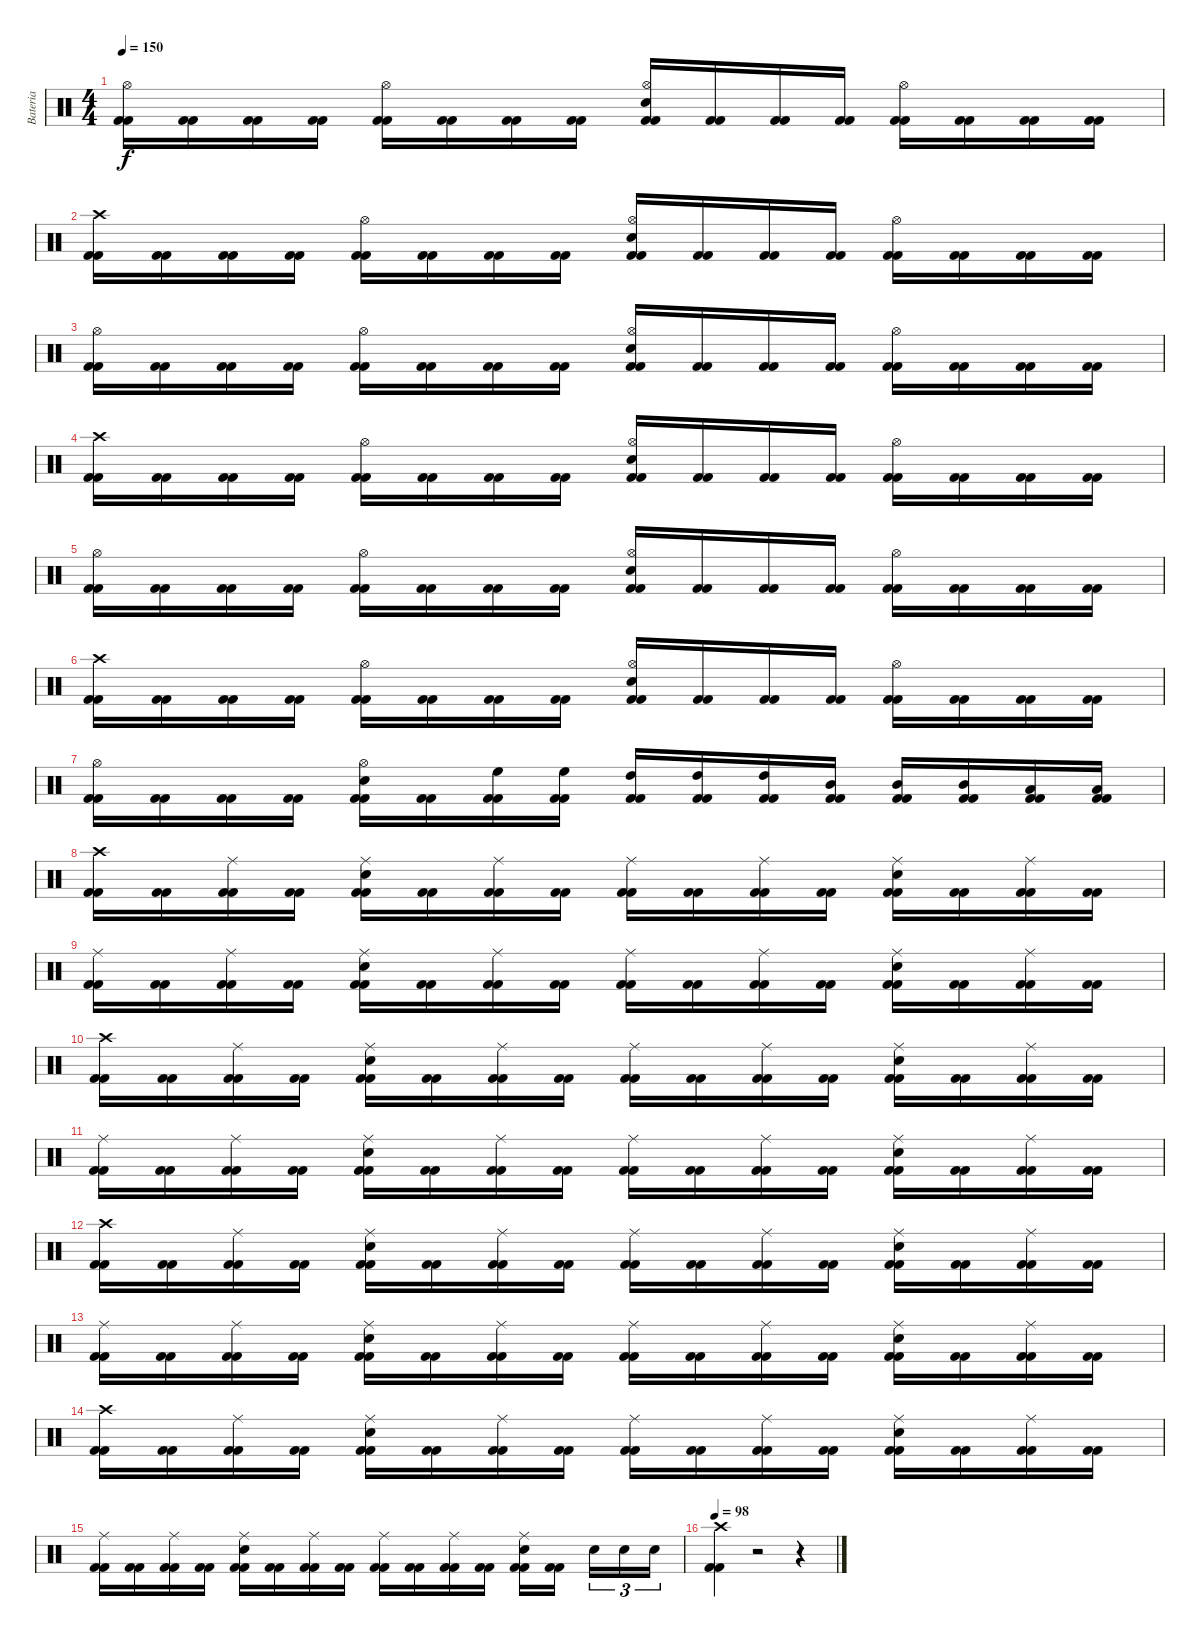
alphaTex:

\track ("Bateria" "Bateria") {instrument percussion}
\staff {score}
\articulation defaults
\ts (4 4)
\tempo 150
\clef neutral
\ks c
("Kick (hit) 2" "Kick (hit) 2" "Hi-Hat (open)").16{dy f} ("Kick (hit) 2" "Kick (hit) 2").16 ("Kick (hit) 2" "Kick (hit) 2").16 ("Kick (hit) 2" "Kick (hit) 2").16 ("Kick (hit) 2" "Kick (hit) 2" "Hi-Hat (open)").16 ("Kick (hit) 2" "Kick (hit) 2").16 ("Kick (hit) 2" "Kick (hit) 2").16 ("Kick (hit) 2" "Kick (hit) 2").16 ("Kick (hit) 2" "Kick (hit) 2" "Snare (hit) 2" "Hi-Hat (open)").16 ("Kick (hit) 2" "Kick (hit) 2").16 ("Kick (hit) 2" "Kick (hit) 2").16 ("Kick (hit) 2" "Kick (hit) 2").16 ("Kick (hit) 2" "Kick (hit) 2" "Hi-Hat (open)").16 ("Kick (hit) 2" "Kick (hit) 2").16 ("Kick (hit) 2" "Kick (hit) 2").16 ("Kick (hit) 2" "Kick (hit) 2").16 |
("Kick (hit) 2" "Kick (hit) 2" "Crash high (hit)").16 ("Kick (hit) 2" "Kick (hit) 2").16 ("Kick (hit) 2" "Kick (hit) 2").16 ("Kick (hit) 2" "Kick (hit) 2").16 ("Kick (hit) 2" "Kick (hit) 2" "Hi-Hat (open)").16 ("Kick (hit) 2" "Kick (hit) 2").16 ("Kick (hit) 2" "Kick (hit) 2").16 ("Kick (hit) 2" "Kick (hit) 2").16 ("Kick (hit) 2" "Kick (hit) 2" "Snare (hit) 2" "Hi-Hat (open)").16 ("Kick (hit) 2" "Kick (hit) 2").16 ("Kick (hit) 2" "Kick (hit) 2").16 ("Kick (hit) 2" "Kick (hit) 2").16 ("Kick (hit) 2" "Kick (hit) 2" "Hi-Hat (open)").16 ("Kick (hit) 2" "Kick (hit) 2").16 ("Kick (hit) 2" "Kick (hit) 2").16 ("Kick (hit) 2" "Kick (hit) 2").16 |
("Kick (hit) 2" "Kick (hit) 2" "Hi-Hat (open)").16 ("Kick (hit) 2" "Kick (hit) 2").16 ("Kick (hit) 2" "Kick (hit) 2").16 ("Kick (hit) 2" "Kick (hit) 2").16 ("Kick (hit) 2" "Kick (hit) 2" "Hi-Hat (open)").16 ("Kick (hit) 2" "Kick (hit) 2").16 ("Kick (hit) 2" "Kick (hit) 2").16 ("Kick (hit) 2" "Kick (hit) 2").16 ("Kick (hit) 2" "Kick (hit) 2" "Snare (hit) 2" "Hi-Hat (open)").16 ("Kick (hit) 2" "Kick (hit) 2").16 ("Kick (hit) 2" "Kick (hit) 2").16 ("Kick (hit) 2" "Kick (hit) 2").16 ("Kick (hit) 2" "Kick (hit) 2" "Hi-Hat (open)").16 ("Kick (hit) 2" "Kick (hit) 2").16 ("Kick (hit) 2" "Kick (hit) 2").16 ("Kick (hit) 2" "Kick (hit) 2").16 |
("Kick (hit) 2" "Kick (hit) 2" "Crash high (hit)").16 ("Kick (hit) 2" "Kick (hit) 2").16 ("Kick (hit) 2" "Kick (hit) 2").16 ("Kick (hit) 2" "Kick (hit) 2").16 ("Kick (hit) 2" "Kick (hit) 2" "Hi-Hat (open)").16 ("Kick (hit) 2" "Kick (hit) 2").16 ("Kick (hit) 2" "Kick (hit) 2").16 ("Kick (hit) 2" "Kick (hit) 2").16 ("Kick (hit) 2" "Kick (hit) 2" "Snare (hit) 2" "Hi-Hat (open)").16 ("Kick (hit) 2" "Kick (hit) 2").16 ("Kick (hit) 2" "Kick (hit) 2").16 ("Kick (hit) 2" "Kick (hit) 2").16 ("Kick (hit) 2" "Kick (hit) 2" "Hi-Hat (open)").16 ("Kick (hit) 2" "Kick (hit) 2").16 ("Kick (hit) 2" "Kick (hit) 2").16 ("Kick (hit) 2" "Kick (hit) 2").16 |
("Kick (hit) 2" "Kick (hit) 2" "Hi-Hat (open)").16 ("Kick (hit) 2" "Kick (hit) 2").16 ("Kick (hit) 2" "Kick (hit) 2").16 ("Kick (hit) 2" "Kick (hit) 2").16 ("Kick (hit) 2" "Kick (hit) 2" "Hi-Hat (open)").16 ("Kick (hit) 2" "Kick (hit) 2").16 ("Kick (hit) 2" "Kick (hit) 2").16 ("Kick (hit) 2" "Kick (hit) 2").16 ("Kick (hit) 2" "Kick (hit) 2" "Snare (hit) 2" "Hi-Hat (open)").16 ("Kick (hit) 2" "Kick (hit) 2").16 ("Kick (hit) 2" "Kick (hit) 2").16 ("Kick (hit) 2" "Kick (hit) 2").16 ("Kick (hit) 2" "Kick (hit) 2" "Hi-Hat (open)").16 ("Kick (hit) 2" "Kick (hit) 2").16 ("Kick (hit) 2" "Kick (hit) 2").16 ("Kick (hit) 2" "Kick (hit) 2").16 |
("Kick (hit) 2" "Kick (hit) 2" "Crash high (hit)").16 ("Kick (hit) 2" "Kick (hit) 2").16 ("Kick (hit) 2" "Kick (hit) 2").16 ("Kick (hit) 2" "Kick (hit) 2").16 ("Kick (hit) 2" "Kick (hit) 2" "Hi-Hat (open)").16 ("Kick (hit) 2" "Kick (hit) 2").16 ("Kick (hit) 2" "Kick (hit) 2").16 ("Kick (hit) 2" "Kick (hit) 2").16 ("Kick (hit) 2" "Kick (hit) 2" "Snare (hit) 2" "Hi-Hat (open)").16 ("Kick (hit) 2" "Kick (hit) 2").16 ("Kick (hit) 2" "Kick (hit) 2").16 ("Kick (hit) 2" "Kick (hit) 2").16 ("Kick (hit) 2" "Kick (hit) 2" "Hi-Hat (open)").16 ("Kick (hit) 2" "Kick (hit) 2").16 ("Kick (hit) 2" "Kick (hit) 2").16 ("Kick (hit) 2" "Kick (hit) 2").16 |
("Kick (hit) 2" "Kick (hit) 2" "Hi-Hat (open)").16 ("Kick (hit) 2" "Kick (hit) 2").16 ("Kick (hit) 2" "Kick (hit) 2").16 ("Kick (hit) 2" "Kick (hit) 2").16 ("Kick (hit) 2" "Kick (hit) 2" "Snare (hit) 2" "Hi-Hat (open)").16 ("Kick (hit) 2" "Kick (hit) 2").16 ("Kick (hit) 2" "Kick (hit) 2" "High Floor Tom (hit)").16 ("Kick (hit) 2" "Kick (hit) 2" "High Floor Tom (hit)").16 ("Kick (hit) 2" "Kick (hit) 2" "High Tom (hit)").16 ("Kick (hit) 2" "Kick (hit) 2" "High Tom (hit)").16 ("Kick (hit) 2" "Kick (hit) 2" "High Tom (hit)").16 ("Kick (hit) 2" "Kick (hit) 2" "Mid Tom (hit)").16 ("Kick (hit) 2" "Kick (hit) 2" "Mid Tom (hit)").16 ("Kick (hit) 2" "Kick (hit) 2" "Mid Tom (hit)").16 ("Kick (hit) 2" "Kick (hit) 2" "Low Tom (hit)").16 ("Kick (hit) 2" "Kick (hit) 2" "Low Tom (hit)").16 |
("Kick (hit) 2" "Kick (hit) 2" "Crash high (hit)").16 ("Kick (hit) 2" "Kick (hit) 2").16 ("Kick (hit) 2" "Kick (hit) 2" "Ride (middle)").16 ("Kick (hit) 2" "Kick (hit) 2").16 ("Kick (hit) 2" "Kick (hit) 2" "Snare (hit) 2" "Ride (middle)").16 ("Kick (hit) 2" "Kick (hit) 2").16 ("Kick (hit) 2" "Kick (hit) 2" "Ride (middle)").16 ("Kick (hit) 2" "Kick (hit) 2").16 ("Kick (hit) 2" "Kick (hit) 2" "Ride (middle)").16 ("Kick (hit) 2" "Kick (hit) 2").16 ("Kick (hit) 2" "Kick (hit) 2" "Ride (middle)").16 ("Kick (hit) 2" "Kick (hit) 2").16 ("Kick (hit) 2" "Kick (hit) 2" "Snare (hit) 2" "Ride (middle)").16 ("Kick (hit) 2" "Kick (hit) 2").16 ("Kick (hit) 2" "Kick (hit) 2" "Ride (middle)").16 ("Kick (hit) 2" "Kick (hit) 2").16 |
("Kick (hit) 2" "Kick (hit) 2" "Ride (middle)").16 ("Kick (hit) 2" "Kick (hit) 2").16 ("Kick (hit) 2" "Kick (hit) 2" "Ride (middle)").16 ("Kick (hit) 2" "Kick (hit) 2").16 ("Kick (hit) 2" "Kick (hit) 2" "Snare (hit) 2" "Ride (middle)").16 ("Kick (hit) 2" "Kick (hit) 2").16 ("Kick (hit) 2" "Kick (hit) 2" "Ride (middle)").16 ("Kick (hit) 2" "Kick (hit) 2").16 ("Kick (hit) 2" "Kick (hit) 2" "Ride (middle)").16 ("Kick (hit) 2" "Kick (hit) 2").16 ("Kick (hit) 2" "Kick (hit) 2" "Ride (middle)").16 ("Kick (hit) 2" "Kick (hit) 2").16 ("Kick (hit) 2" "Kick (hit) 2" "Snare (hit) 2" "Ride (middle)").16 ("Kick (hit) 2" "Kick (hit) 2").16 ("Kick (hit) 2" "Kick (hit) 2" "Ride (middle)").16 ("Kick (hit) 2" "Kick (hit) 2").16 |
("Kick (hit) 2" "Kick (hit) 2" "Crash high (hit)").16 ("Kick (hit) 2" "Kick (hit) 2").16 ("Kick (hit) 2" "Kick (hit) 2" "Ride (middle)").16 ("Kick (hit) 2" "Kick (hit) 2").16 ("Kick (hit) 2" "Kick (hit) 2" "Snare (hit) 2" "Ride (middle)").16 ("Kick (hit) 2" "Kick (hit) 2").16 ("Kick (hit) 2" "Kick (hit) 2" "Ride (middle)").16 ("Kick (hit) 2" "Kick (hit) 2").16 ("Kick (hit) 2" "Kick (hit) 2" "Ride (middle)").16 ("Kick (hit) 2" "Kick (hit) 2").16 ("Kick (hit) 2" "Kick (hit) 2" "Ride (middle)").16 ("Kick (hit) 2" "Kick (hit) 2").16 ("Kick (hit) 2" "Kick (hit) 2" "Snare (hit) 2" "Ride (middle)").16 ("Kick (hit) 2" "Kick (hit) 2").16 ("Kick (hit) 2" "Kick (hit) 2" "Ride (middle)").16 ("Kick (hit) 2" "Kick (hit) 2").16 |
("Kick (hit) 2" "Kick (hit) 2" "Ride (middle)").16 ("Kick (hit) 2" "Kick (hit) 2").16 ("Kick (hit) 2" "Kick (hit) 2" "Ride (middle)").16 ("Kick (hit) 2" "Kick (hit) 2").16 ("Kick (hit) 2" "Kick (hit) 2" "Snare (hit) 2" "Ride (middle)").16 ("Kick (hit) 2" "Kick (hit) 2").16 ("Kick (hit) 2" "Kick (hit) 2" "Ride (middle)").16 ("Kick (hit) 2" "Kick (hit) 2").16 ("Kick (hit) 2" "Kick (hit) 2" "Ride (middle)").16 ("Kick (hit) 2" "Kick (hit) 2").16 ("Kick (hit) 2" "Kick (hit) 2" "Ride (middle)").16 ("Kick (hit) 2" "Kick (hit) 2").16 ("Kick (hit) 2" "Kick (hit) 2" "Snare (hit) 2" "Ride (middle)").16 ("Kick (hit) 2" "Kick (hit) 2").16 ("Kick (hit) 2" "Kick (hit) 2" "Ride (middle)").16 ("Kick (hit) 2" "Kick (hit) 2").16 |
("Kick (hit) 2" "Kick (hit) 2" "Crash high (hit)").16 ("Kick (hit) 2" "Kick (hit) 2").16 ("Kick (hit) 2" "Kick (hit) 2" "Ride (middle)").16 ("Kick (hit) 2" "Kick (hit) 2").16 ("Kick (hit) 2" "Kick (hit) 2" "Snare (hit) 2" "Ride (middle)").16 ("Kick (hit) 2" "Kick (hit) 2").16 ("Kick (hit) 2" "Kick (hit) 2" "Ride (middle)").16 ("Kick (hit) 2" "Kick (hit) 2").16 ("Kick (hit) 2" "Kick (hit) 2" "Ride (middle)").16 ("Kick (hit) 2" "Kick (hit) 2").16 ("Kick (hit) 2" "Kick (hit) 2" "Ride (middle)").16 ("Kick (hit) 2" "Kick (hit) 2").16 ("Kick (hit) 2" "Kick (hit) 2" "Snare (hit) 2" "Ride (middle)").16 ("Kick (hit) 2" "Kick (hit) 2").16 ("Kick (hit) 2" "Kick (hit) 2" "Ride (middle)").16 ("Kick (hit) 2" "Kick (hit) 2").16 |
("Kick (hit) 2" "Kick (hit) 2" "Ride (middle)").16 ("Kick (hit) 2" "Kick (hit) 2").16 ("Kick (hit) 2" "Kick (hit) 2" "Ride (middle)").16 ("Kick (hit) 2" "Kick (hit) 2").16 ("Kick (hit) 2" "Kick (hit) 2" "Snare (hit) 2" "Ride (middle)").16 ("Kick (hit) 2" "Kick (hit) 2").16 ("Kick (hit) 2" "Kick (hit) 2" "Ride (middle)").16 ("Kick (hit) 2" "Kick (hit) 2").16 ("Kick (hit) 2" "Kick (hit) 2" "Ride (middle)").16 ("Kick (hit) 2" "Kick (hit) 2").16 ("Kick (hit) 2" "Kick (hit) 2" "Ride (middle)").16 ("Kick (hit) 2" "Kick (hit) 2").16 ("Kick (hit) 2" "Kick (hit) 2" "Snare (hit) 2" "Ride (middle)").16 ("Kick (hit) 2" "Kick (hit) 2").16 ("Kick (hit) 2" "Kick (hit) 2" "Ride (middle)").16 ("Kick (hit) 2" "Kick (hit) 2").16 |
("Kick (hit) 2" "Kick (hit) 2" "Crash high (hit)").16 ("Kick (hit) 2" "Kick (hit) 2").16 ("Kick (hit) 2" "Kick (hit) 2" "Ride (middle)").16 ("Kick (hit) 2" "Kick (hit) 2").16 ("Kick (hit) 2" "Kick (hit) 2" "Snare (hit) 2" "Ride (middle)").16 ("Kick (hit) 2" "Kick (hit) 2").16 ("Kick (hit) 2" "Kick (hit) 2" "Ride (middle)").16 ("Kick (hit) 2" "Kick (hit) 2").16 ("Kick (hit) 2" "Kick (hit) 2" "Ride (middle)").16 ("Kick (hit) 2" "Kick (hit) 2").16 ("Kick (hit) 2" "Kick (hit) 2" "Ride (middle)").16 ("Kick (hit) 2" "Kick (hit) 2").16 ("Kick (hit) 2" "Kick (hit) 2" "Snare (hit) 2" "Ride (middle)").16 ("Kick (hit) 2" "Kick (hit) 2").16 ("Kick (hit) 2" "Kick (hit) 2" "Ride (middle)").16 ("Kick (hit) 2" "Kick (hit) 2").16 |
("Kick (hit) 2" "Kick (hit) 2" "Ride (middle)").16 ("Kick (hit) 2" "Kick (hit) 2").16 ("Kick (hit) 2" "Kick (hit) 2" "Ride (middle)").16 ("Kick (hit) 2" "Kick (hit) 2").16 ("Kick (hit) 2" "Kick (hit) 2" "Snare (hit) 2" "Ride (middle)").16 ("Kick (hit) 2" "Kick (hit) 2").16 ("Kick (hit) 2" "Kick (hit) 2" "Ride (middle)").16 ("Kick (hit) 2" "Kick (hit) 2").16 ("Kick (hit) 2" "Kick (hit) 2" "Ride (middle)").16 ("Kick (hit) 2" "Kick (hit) 2").16 ("Kick (hit) 2" "Kick (hit) 2" "Ride (middle)").16 ("Kick (hit) 2" "Kick (hit) 2").16 ("Kick (hit) 2" "Kick (hit) 2" "Snare (hit) 2" "Ride (middle)").16 ("Kick (hit) 2" "Kick (hit) 2").16 "Snare (hit) 2".16{tu (3 2)} "Snare (hit) 2".16{tu (3 2)} "Snare (hit) 2".16{tu (3 2)} |
\tempo 98
("Kick (hit) 2" "Kick (hit) 2" "Crash high (hit)").4 r.2 r.4
